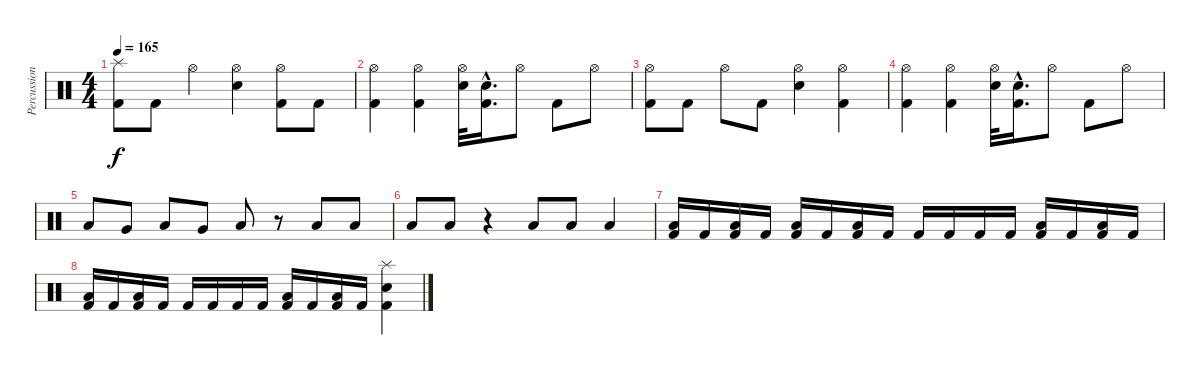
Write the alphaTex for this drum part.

\track ("Percussions" "Percussion") {instrument percussion}
\staff {score}
\articulation defaults
\ts (4 4)
\tempo 165
\clef neutral
\ks c
("Splash (hit)" "Kick (hit) 2").8{dy f} "Kick (hit) 2".8 "Hi-Hat (open)".4 ("Hi-Hat (open)" "Electric Snare (hit)").4 ("Hi-Hat (open)" "Kick (hit) 2").8 "Kick (hit) 2".8 |
("Hi-Hat (open)" "Kick (hit) 2").4 ("Hi-Hat (open)" "Kick (hit) 2").4 ("Hi-Hat (open)" "Electric Snare (hit)").32 ("Electric Snare (hit)"{hac} "Kick (hit) 2"{hac}).16{d} "Hi-Hat (open)".8 "Kick (hit) 2".8 "Hi-Hat (open)".8 |
("Hi-Hat (open)" "Kick (hit) 2").8 "Kick (hit) 2".8 "Hi-Hat (open)".8 "Kick (hit) 2".8 ("Hi-Hat (open)" "Electric Snare (hit)").4 ("Hi-Hat (open)" "Kick (hit) 2").4 |
("Hi-Hat (open)" "Kick (hit) 2").4 ("Hi-Hat (open)" "Kick (hit) 2").4 ("Hi-Hat (open)" "Electric Snare (hit)").32 ("Electric Snare (hit)"{hac} "Kick (hit) 2"{hac}).16{d} "Hi-Hat (open)".8 "Kick (hit) 2".8 "Hi-Hat (open)".8 |
"Low Floor Tom (hit)".8 "Very Low Tom (hit)".8 "Low Floor Tom (hit)".8 "Very Low Tom (hit)".8 "Low Floor Tom (hit)".8 r.8 "Low Floor Tom (hit)".8 "Low Floor Tom (hit)".8 |
"Low Floor Tom (hit)".8 "Low Floor Tom (hit)".8 r.4 "Low Floor Tom (hit)".8 "Low Floor Tom (hit)".8 "Low Floor Tom (hit)".4 |
("Low Floor Tom (hit)" "Kick (hit) 2").16 "Kick (hit) 2".16 ("Low Floor Tom (hit)" "Kick (hit) 2").16 "Kick (hit) 2".16 ("Low Floor Tom (hit)" "Kick (hit) 2").16 "Kick (hit) 2".16 ("Low Floor Tom (hit)" "Kick (hit) 2").16 "Kick (hit) 2".16 "Kick (hit) 2".16 "Kick (hit) 2".16 "Kick (hit) 2".16 "Kick (hit) 2".16 ("Low Floor Tom (hit)" "Kick (hit) 2").16 "Kick (hit) 2".16 ("Low Floor Tom (hit)" "Kick (hit) 2").16 "Kick (hit) 2".16 |
("Low Floor Tom (hit)" "Kick (hit) 2").16 "Kick (hit) 2".16 ("Low Floor Tom (hit)" "Kick (hit) 2").16 "Kick (hit) 2".16 "Kick (hit) 2".16 "Kick (hit) 2".16 "Kick (hit) 2".16 "Kick (hit) 2".16 ("Low Floor Tom (hit)" "Kick (hit) 2").16 "Kick (hit) 2".16 ("Low Floor Tom (hit)" "Kick (hit) 2").16 "Kick (hit) 2".16 ("Splash (hit)" "Electric Snare (hit)" "Kick (hit) 2").4
